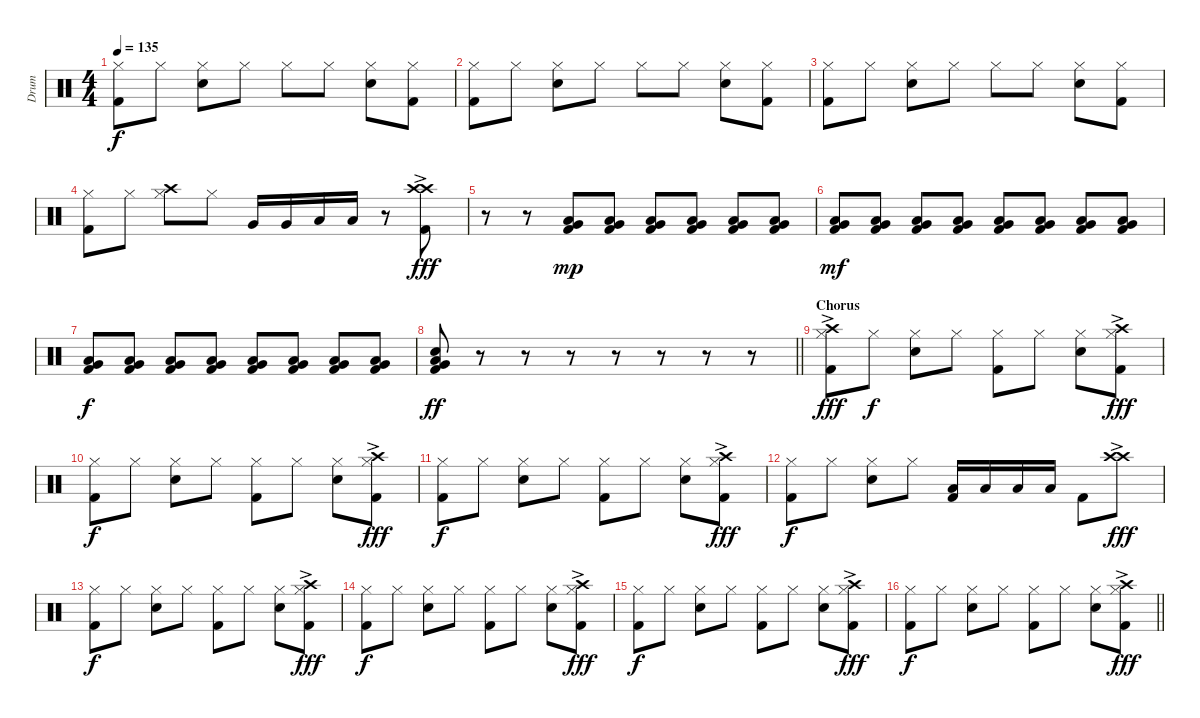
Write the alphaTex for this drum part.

\track ("Drum" "Drum") {instrument percussion}
\staff {score}
\articulation defaults
\ts (4 4)
\tempo 135
\clef neutral
\ks c
("Hi-Hat (closed)" "Kick (hit) 2").8{dy f} "Hi-Hat (closed)".8 ("Snare (hit) 2" "Hi-Hat (closed)").8 "Hi-Hat (closed)".8 "Hi-Hat (closed)".8 "Hi-Hat (closed)".8 ("Snare (hit) 2" "Hi-Hat (closed)").8 ("Hi-Hat (closed)" "Kick (hit) 2").8 |
("Hi-Hat (closed)" "Kick (hit) 2").8 "Hi-Hat (closed)".8 ("Snare (hit) 2" "Hi-Hat (closed)").8 "Hi-Hat (closed)".8 "Hi-Hat (closed)".8 "Hi-Hat (closed)".8 ("Snare (hit) 2" "Hi-Hat (closed)").8 ("Hi-Hat (closed)" "Kick (hit) 2").8 |
("Hi-Hat (closed)" "Kick (hit) 2").8 "Hi-Hat (closed)".8 ("Snare (hit) 2" "Hi-Hat (closed)").8 "Hi-Hat (closed)".8 "Hi-Hat (closed)".8 "Hi-Hat (closed)".8 ("Snare (hit) 2" "Hi-Hat (closed)").8 ("Hi-Hat (closed)" "Kick (hit) 2").8 |
("Hi-Hat (closed)" "Kick (hit) 2").8 "Hi-Hat (closed)".8 ("Crash high (hit)" "Hi-Hat (closed)").8 "Hi-Hat (closed)".8 "Very Low Tom (hit)".16 "Very Low Tom (hit)".16 "Low Floor Tom (hit)".16 "Low Floor Tom (hit)".16 r.8 ("Crash high (hit)"{ac} "Crash high (hit)"{ac} "Kick (hit) 2").8{dy fff} |
r.8 r.8 ("Very Low Tom (hit)" "Low Floor Tom (hit)" "Kick (hit) 2").8{dy mp} ("Very Low Tom (hit)" "Low Floor Tom (hit)" "Kick (hit) 2").8 ("Very Low Tom (hit)" "Low Floor Tom (hit)" "Kick (hit) 2").8 ("Very Low Tom (hit)" "Low Floor Tom (hit)" "Kick (hit) 2").8 ("Very Low Tom (hit)" "Low Floor Tom (hit)" "Kick (hit) 2").8 ("Very Low Tom (hit)" "Low Floor Tom (hit)" "Kick (hit) 2").8 |
("Very Low Tom (hit)" "Low Floor Tom (hit)" "Kick (hit) 2").8{dy mf} ("Very Low Tom (hit)" "Low Floor Tom (hit)" "Kick (hit) 2").8 ("Very Low Tom (hit)" "Low Floor Tom (hit)" "Kick (hit) 2").8 ("Very Low Tom (hit)" "Low Floor Tom (hit)" "Kick (hit) 2").8 ("Very Low Tom (hit)" "Low Floor Tom (hit)" "Kick (hit) 2").8 ("Very Low Tom (hit)" "Low Floor Tom (hit)" "Kick (hit) 2").8 ("Very Low Tom (hit)" "Low Floor Tom (hit)" "Kick (hit) 2").8 ("Very Low Tom (hit)" "Low Floor Tom (hit)" "Kick (hit) 2").8 |
("Very Low Tom (hit)" "Low Floor Tom (hit)" "Kick (hit) 2").8{dy f} ("Very Low Tom (hit)" "Low Floor Tom (hit)" "Kick (hit) 2").8 ("Very Low Tom (hit)" "Low Floor Tom (hit)" "Kick (hit) 2").8 ("Very Low Tom (hit)" "Low Floor Tom (hit)" "Kick (hit) 2").8 ("Very Low Tom (hit)" "Low Floor Tom (hit)" "Kick (hit) 2").8 ("Very Low Tom (hit)" "Low Floor Tom (hit)" "Kick (hit) 2").8 ("Very Low Tom (hit)" "Low Floor Tom (hit)" "Kick (hit) 2").8 ("Very Low Tom (hit)" "Low Floor Tom (hit)" "Kick (hit) 2").8 |
\barLineRight lightlight
("Snare (hit) 2" "Very Low Tom (hit)" "Low Floor Tom (hit)" "Kick (hit) 2").8{dy ff} r.8 r.8 r.8 r.8 r.8 r.8 r.8 |
\section ("" "Chorus")
("Crash high (hit)"{ac} "Hi-Hat (closed)" "Kick (hit) 2").8{dy fff} "Hi-Hat (closed)".8{dy f} ("Snare (hit) 2" "Hi-Hat (closed)").8 "Hi-Hat (closed)".8 ("Hi-Hat (closed)" "Kick (hit) 2").8 "Hi-Hat (closed)".8 ("Snare (hit) 2" "Hi-Hat (closed)").8 ("Crash high (hit)"{ac} "Hi-Hat (closed)" "Kick (hit) 2").8{dy fff} |
("Hi-Hat (closed)" "Kick (hit) 2").8{dy f} "Hi-Hat (closed)".8 ("Snare (hit) 2" "Hi-Hat (closed)").8 "Hi-Hat (closed)".8 ("Hi-Hat (closed)" "Kick (hit) 2").8 "Hi-Hat (closed)".8 ("Snare (hit) 2" "Hi-Hat (closed)").8 ("Crash high (hit)"{ac} "Hi-Hat (closed)" "Kick (hit) 2").8{dy fff} |
("Hi-Hat (closed)" "Kick (hit) 2").8{dy f} "Hi-Hat (closed)".8 ("Snare (hit) 2" "Hi-Hat (closed)").8 "Hi-Hat (closed)".8 ("Hi-Hat (closed)" "Kick (hit) 2").8 "Hi-Hat (closed)".8 ("Snare (hit) 2" "Hi-Hat (closed)").8 ("Crash high (hit)"{ac} "Hi-Hat (closed)" "Kick (hit) 2").8{dy fff} |
("Hi-Hat (closed)" "Kick (hit) 2").8{dy f} "Hi-Hat (closed)".8 ("Snare (hit) 2" "Hi-Hat (closed)").8 "Hi-Hat (closed)".8 ("Low Tom (hit)" "Kick (hit) 2").16 "Low Tom (hit)".16 "Low Tom (hit)".16 "Low Tom (hit)".16 "Kick (hit) 2".8 ("Crash high (hit)"{ac} "Crash high (hit)"{ac}).8{dy fff} |
("Hi-Hat (closed)" "Kick (hit) 2").8{dy f} "Hi-Hat (closed)".8 ("Snare (hit) 2" "Hi-Hat (closed)").8 "Hi-Hat (closed)".8 ("Hi-Hat (closed)" "Kick (hit) 2").8 "Hi-Hat (closed)".8 ("Snare (hit) 2" "Hi-Hat (closed)").8 ("Crash high (hit)"{ac} "Hi-Hat (closed)" "Kick (hit) 2").8{dy fff} |
("Hi-Hat (closed)" "Kick (hit) 2").8{dy f} "Hi-Hat (closed)".8 ("Snare (hit) 2" "Hi-Hat (closed)").8 "Hi-Hat (closed)".8 ("Hi-Hat (closed)" "Kick (hit) 2").8 "Hi-Hat (closed)".8 ("Snare (hit) 2" "Hi-Hat (closed)").8 ("Crash high (hit)"{ac} "Hi-Hat (closed)" "Kick (hit) 2").8{dy fff} |
("Hi-Hat (closed)" "Kick (hit) 2").8{dy f} "Hi-Hat (closed)".8 ("Snare (hit) 2" "Hi-Hat (closed)").8 "Hi-Hat (closed)".8 ("Hi-Hat (closed)" "Kick (hit) 2").8 "Hi-Hat (closed)".8 ("Snare (hit) 2" "Hi-Hat (closed)").8 ("Crash high (hit)"{ac} "Hi-Hat (closed)" "Kick (hit) 2").8{dy fff} |
\barLineRight lightlight
("Hi-Hat (closed)" "Kick (hit) 2").8{dy f} "Hi-Hat (closed)".8 ("Snare (hit) 2" "Hi-Hat (closed)").8 "Hi-Hat (closed)".8 ("Hi-Hat (closed)" "Kick (hit) 2").8 "Hi-Hat (closed)".8 ("Snare (hit) 2" "Hi-Hat (closed)").8 ("Crash high (hit)"{ac} "Hi-Hat (closed)" "Kick (hit) 2").8{dy fff}
